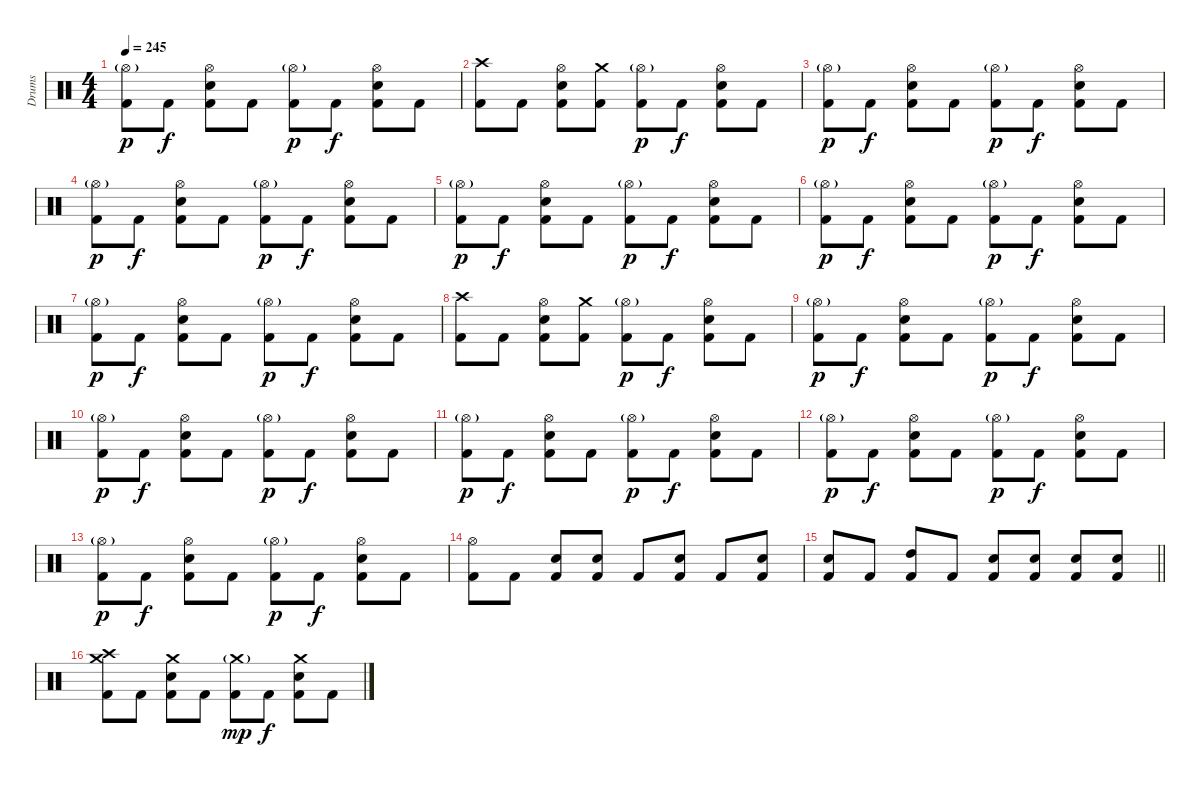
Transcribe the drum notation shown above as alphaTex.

\track ("Drums" "Drums") {instrument percussion}
\staff {score}
\articulation defaults
\ts (4 4)
\tempo 245
\clef neutral
\ks c
("Hi-Hat (open)"{g} "Kick (hit) 2").8{dy p} "Kick (hit) 2".8{dy f} ("Hi-Hat (open)" "Electric Snare (hit)" "Kick (hit) 2").8 "Kick (hit) 2".8 ("Hi-Hat (open)"{g} "Kick (hit) 2").8{dy p} "Kick (hit) 2".8{dy f} ("Hi-Hat (open)" "Electric Snare (hit)" "Kick (hit) 2").8 "Kick (hit) 2".8 |
("Crash high (hit)" "Kick (hit) 2").8 "Kick (hit) 2".8 ("Hi-Hat (open)" "Electric Snare (hit)" "Kick (hit) 2").8 ("Crash medium (hit)" "Kick (hit) 2").8 ("Hi-Hat (open)"{g} "Kick (hit) 2").8{dy p} "Kick (hit) 2".8{dy f} ("Hi-Hat (open)" "Electric Snare (hit)" "Kick (hit) 2").8 "Kick (hit) 2".8 |
("Hi-Hat (open)"{g} "Kick (hit) 2").8{dy p} "Kick (hit) 2".8{dy f} ("Hi-Hat (open)" "Electric Snare (hit)" "Kick (hit) 2").8 "Kick (hit) 2".8 ("Hi-Hat (open)"{g} "Kick (hit) 2").8{dy p} "Kick (hit) 2".8{dy f} ("Hi-Hat (open)" "Electric Snare (hit)" "Kick (hit) 2").8 "Kick (hit) 2".8 |
("Hi-Hat (open)"{g} "Kick (hit) 2").8{dy p} "Kick (hit) 2".8{dy f} ("Hi-Hat (open)" "Electric Snare (hit)" "Kick (hit) 2").8 "Kick (hit) 2".8 ("Hi-Hat (open)"{g} "Kick (hit) 2").8{dy p} "Kick (hit) 2".8{dy f} ("Hi-Hat (open)" "Electric Snare (hit)" "Kick (hit) 2").8 "Kick (hit) 2".8 |
("Hi-Hat (open)"{g} "Kick (hit) 2").8{dy p} "Kick (hit) 2".8{dy f} ("Hi-Hat (open)" "Electric Snare (hit)" "Kick (hit) 2").8 "Kick (hit) 2".8 ("Hi-Hat (open)"{g} "Kick (hit) 2").8{dy p} "Kick (hit) 2".8{dy f} ("Hi-Hat (open)" "Electric Snare (hit)" "Kick (hit) 2").8 "Kick (hit) 2".8 |
("Hi-Hat (open)"{g} "Kick (hit) 2").8{dy p} "Kick (hit) 2".8{dy f} ("Hi-Hat (open)" "Electric Snare (hit)" "Kick (hit) 2").8 "Kick (hit) 2".8 ("Hi-Hat (open)"{g} "Kick (hit) 2").8{dy p} "Kick (hit) 2".8{dy f} ("Hi-Hat (open)" "Electric Snare (hit)" "Kick (hit) 2").8 "Kick (hit) 2".8 |
("Hi-Hat (open)"{g} "Kick (hit) 2").8{dy p} "Kick (hit) 2".8{dy f} ("Hi-Hat (open)" "Electric Snare (hit)" "Kick (hit) 2").8 "Kick (hit) 2".8 ("Hi-Hat (open)"{g} "Kick (hit) 2").8{dy p} "Kick (hit) 2".8{dy f} ("Hi-Hat (open)" "Electric Snare (hit)" "Kick (hit) 2").8 "Kick (hit) 2".8 |
("Crash high (hit)" "Kick (hit) 2").8 "Kick (hit) 2".8 ("Hi-Hat (open)" "Electric Snare (hit)" "Kick (hit) 2").8 ("Crash medium (hit)" "Kick (hit) 2").8 ("Hi-Hat (open)"{g} "Kick (hit) 2").8{dy p} "Kick (hit) 2".8{dy f} ("Hi-Hat (open)" "Electric Snare (hit)" "Kick (hit) 2").8 "Kick (hit) 2".8 |
("Hi-Hat (open)"{g} "Kick (hit) 2").8{dy p} "Kick (hit) 2".8{dy f} ("Hi-Hat (open)" "Electric Snare (hit)" "Kick (hit) 2").8 "Kick (hit) 2".8 ("Hi-Hat (open)"{g} "Kick (hit) 2").8{dy p} "Kick (hit) 2".8{dy f} ("Hi-Hat (open)" "Electric Snare (hit)" "Kick (hit) 2").8 "Kick (hit) 2".8 |
("Hi-Hat (open)"{g} "Kick (hit) 2").8{dy p} "Kick (hit) 2".8{dy f} ("Hi-Hat (open)" "Electric Snare (hit)" "Kick (hit) 2").8 "Kick (hit) 2".8 ("Hi-Hat (open)"{g} "Kick (hit) 2").8{dy p} "Kick (hit) 2".8{dy f} ("Hi-Hat (open)" "Electric Snare (hit)" "Kick (hit) 2").8 "Kick (hit) 2".8 |
("Hi-Hat (open)"{g} "Kick (hit) 2").8{dy p} "Kick (hit) 2".8{dy f} ("Hi-Hat (open)" "Electric Snare (hit)" "Kick (hit) 2").8 "Kick (hit) 2".8 ("Hi-Hat (open)"{g} "Kick (hit) 2").8{dy p} "Kick (hit) 2".8{dy f} ("Hi-Hat (open)" "Electric Snare (hit)" "Kick (hit) 2").8 "Kick (hit) 2".8 |
("Hi-Hat (open)"{g} "Kick (hit) 2").8{dy p} "Kick (hit) 2".8{dy f} ("Hi-Hat (open)" "Electric Snare (hit)" "Kick (hit) 2").8 "Kick (hit) 2".8 ("Hi-Hat (open)"{g} "Kick (hit) 2").8{dy p} "Kick (hit) 2".8{dy f} ("Hi-Hat (open)" "Electric Snare (hit)" "Kick (hit) 2").8 "Kick (hit) 2".8 |
("Hi-Hat (open)"{g} "Kick (hit) 2").8{dy p} "Kick (hit) 2".8{dy f} ("Hi-Hat (open)" "Electric Snare (hit)" "Kick (hit) 2").8 "Kick (hit) 2".8 ("Hi-Hat (open)"{g} "Kick (hit) 2").8{dy p} "Kick (hit) 2".8{dy f} ("Hi-Hat (open)" "Electric Snare (hit)" "Kick (hit) 2").8 "Kick (hit) 2".8 |
("Hi-Hat (open)" "Kick (hit) 2").8 "Kick (hit) 2".8 ("Electric Snare (hit)" "Kick (hit) 2").8 ("Electric Snare (hit)" "Kick (hit) 2").8 "Kick (hit) 2".8 ("Electric Snare (hit)" "Kick (hit) 2").8 "Kick (hit) 2".8 ("Electric Snare (hit)" "Kick (hit) 2").8 |
\barLineRight lightlight
("Electric Snare (hit)" "Kick (hit) 2").8 "Kick (hit) 2".8 ("High Tom (hit)" "Kick (hit) 2").8 "Kick (hit) 2".8 ("Electric Snare (hit)" "Kick (hit) 2").8 ("Electric Snare (hit)" "Kick (hit) 2").8 ("Electric Snare (hit)" "Kick (hit) 2").8 ("Electric Snare (hit)" "Kick (hit) 2").8 |
("Crash high (hit)" "Crash medium (hit)" "Kick (hit) 2").8 "Kick (hit) 2".8 ("Crash medium (hit)" "Electric Snare (hit)" "Kick (hit) 2").8 "Kick (hit) 2".8 ("Crash medium (hit)"{g} "Kick (hit) 2").8{dy mp} "Kick (hit) 2".8{dy f} ("Crash medium (hit)" "Electric Snare (hit)" "Kick (hit) 2").8 "Kick (hit) 2".8
